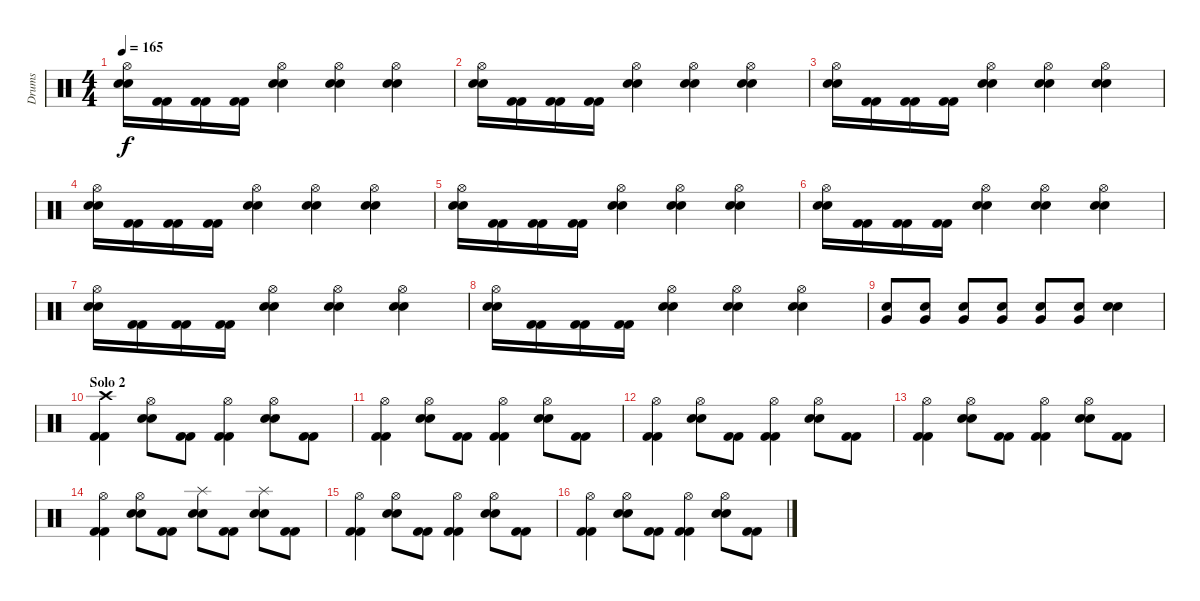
\track ("Drums" "Drums") {instrument percussion}
\staff {score}
\articulation defaults
\ts (4 4)
\tempo 165
\clef neutral
\ks c
("Hi-Hat (open)" "Snare (hit) 2" "Snare (hit) 2").16{dy f} ("Kick (hit) 2" "Kick (hit) 2").16 ("Kick (hit) 2" "Kick (hit) 2").16 ("Kick (hit) 2" "Kick (hit) 2").16 ("Hi-Hat (open)" "Snare (hit) 2" "Snare (hit) 2").4 ("Hi-Hat (open)" "Snare (hit) 2" "Snare (hit) 2").4 ("Hi-Hat (open)" "Snare (hit) 2" "Snare (hit) 2").4 |
("Hi-Hat (open)" "Snare (hit) 2" "Snare (hit) 2").16 ("Kick (hit) 2" "Kick (hit) 2").16 ("Kick (hit) 2" "Kick (hit) 2").16 ("Kick (hit) 2" "Kick (hit) 2").16 ("Hi-Hat (open)" "Snare (hit) 2" "Snare (hit) 2").4 ("Hi-Hat (open)" "Snare (hit) 2" "Snare (hit) 2").4 ("Hi-Hat (open)" "Snare (hit) 2" "Snare (hit) 2").4 |
("Hi-Hat (open)" "Snare (hit) 2" "Snare (hit) 2").16 ("Kick (hit) 2" "Kick (hit) 2").16 ("Kick (hit) 2" "Kick (hit) 2").16 ("Kick (hit) 2" "Kick (hit) 2").16 ("Hi-Hat (open)" "Snare (hit) 2" "Snare (hit) 2").4 ("Hi-Hat (open)" "Snare (hit) 2" "Snare (hit) 2").4 ("Hi-Hat (open)" "Snare (hit) 2" "Snare (hit) 2").4 |
("Hi-Hat (open)" "Snare (hit) 2" "Snare (hit) 2").16 ("Kick (hit) 2" "Kick (hit) 2").16 ("Kick (hit) 2" "Kick (hit) 2").16 ("Kick (hit) 2" "Kick (hit) 2").16 ("Hi-Hat (open)" "Snare (hit) 2" "Snare (hit) 2").4 ("Hi-Hat (open)" "Snare (hit) 2" "Snare (hit) 2").4 ("Hi-Hat (open)" "Snare (hit) 2" "Snare (hit) 2").4 |
("Hi-Hat (open)" "Snare (hit) 2" "Snare (hit) 2").16 ("Kick (hit) 2" "Kick (hit) 2").16 ("Kick (hit) 2" "Kick (hit) 2").16 ("Kick (hit) 2" "Kick (hit) 2").16 ("Hi-Hat (open)" "Snare (hit) 2" "Snare (hit) 2").4 ("Hi-Hat (open)" "Snare (hit) 2" "Snare (hit) 2").4 ("Hi-Hat (open)" "Snare (hit) 2" "Snare (hit) 2").4 |
("Hi-Hat (open)" "Snare (hit) 2" "Snare (hit) 2").16 ("Kick (hit) 2" "Kick (hit) 2").16 ("Kick (hit) 2" "Kick (hit) 2").16 ("Kick (hit) 2" "Kick (hit) 2").16 ("Hi-Hat (open)" "Snare (hit) 2" "Snare (hit) 2").4 ("Hi-Hat (open)" "Snare (hit) 2" "Snare (hit) 2").4 ("Hi-Hat (open)" "Snare (hit) 2" "Snare (hit) 2").4 |
("Hi-Hat (open)" "Snare (hit) 2" "Snare (hit) 2").16 ("Kick (hit) 2" "Kick (hit) 2").16 ("Kick (hit) 2" "Kick (hit) 2").16 ("Kick (hit) 2" "Kick (hit) 2").16 ("Hi-Hat (open)" "Snare (hit) 2" "Snare (hit) 2").4 ("Hi-Hat (open)" "Snare (hit) 2" "Snare (hit) 2").4 ("Hi-Hat (open)" "Snare (hit) 2" "Snare (hit) 2").4 |
("Hi-Hat (open)" "Snare (hit) 2" "Snare (hit) 2").16 ("Kick (hit) 2" "Kick (hit) 2").16 ("Kick (hit) 2" "Kick (hit) 2").16 ("Kick (hit) 2" "Kick (hit) 2").16 ("Hi-Hat (open)" "Snare (hit) 2" "Snare (hit) 2").4 ("Hi-Hat (open)" "Snare (hit) 2" "Snare (hit) 2").4 ("Hi-Hat (open)" "Snare (hit) 2" "Snare (hit) 2").4 |
("Very Low Tom (hit)" "Snare (hit) 2").8 ("Very Low Tom (hit)" "Snare (hit) 2").8 ("Very Low Tom (hit)" "Snare (hit) 2").8 ("Very Low Tom (hit)" "Snare (hit) 2").8 ("Very Low Tom (hit)" "Snare (hit) 2").8 ("Very Low Tom (hit)" "Snare (hit) 2").8 ("Snare (hit) 2" "Snare (hit) 2").4 |
\section ("" "Solo 2")
("Crash high (hit)" "Kick (hit) 2" "Kick (hit) 2").4 ("Hi-Hat (open)" "Snare (hit) 2" "Snare (hit) 2").8 ("Kick (hit) 2" "Kick (hit) 2").8 ("Hi-Hat (open)" "Kick (hit) 2" "Kick (hit) 2").4 ("Hi-Hat (open)" "Snare (hit) 2" "Snare (hit) 2").8 ("Kick (hit) 2" "Kick (hit) 2").8 |
("Hi-Hat (open)" "Kick (hit) 2" "Kick (hit) 2").4 ("Hi-Hat (open)" "Snare (hit) 2" "Snare (hit) 2").8 ("Kick (hit) 2" "Kick (hit) 2").8 ("Hi-Hat (open)" "Kick (hit) 2" "Kick (hit) 2").4 ("Hi-Hat (open)" "Snare (hit) 2" "Snare (hit) 2").8 ("Kick (hit) 2" "Kick (hit) 2").8 |
("Hi-Hat (open)" "Kick (hit) 2" "Kick (hit) 2").4 ("Hi-Hat (open)" "Snare (hit) 2" "Snare (hit) 2").8 ("Kick (hit) 2" "Kick (hit) 2").8 ("Hi-Hat (open)" "Kick (hit) 2" "Kick (hit) 2").4 ("Hi-Hat (open)" "Snare (hit) 2" "Snare (hit) 2").8 ("Kick (hit) 2" "Kick (hit) 2").8 |
("Hi-Hat (open)" "Kick (hit) 2" "Kick (hit) 2").4 ("Hi-Hat (open)" "Snare (hit) 2" "Snare (hit) 2").8 ("Kick (hit) 2" "Kick (hit) 2").8 ("Hi-Hat (open)" "Kick (hit) 2" "Kick (hit) 2").4 ("Hi-Hat (open)" "Snare (hit) 2" "Snare (hit) 2").8 ("Kick (hit) 2" "Kick (hit) 2").8 |
("Hi-Hat (open)" "Kick (hit) 2" "Kick (hit) 2").4 ("Hi-Hat (open)" "Snare (hit) 2" "Snare (hit) 2").8 ("Kick (hit) 2" "Kick (hit) 2").8 ("Splash (hit)" "Snare (hit) 2" "Snare (hit) 2").8 ("Kick (hit) 2" "Kick (hit) 2").8 ("Splash (hit)" "Snare (hit) 2" "Snare (hit) 2").8 ("Kick (hit) 2" "Kick (hit) 2").8 |
("Hi-Hat (open)" "Kick (hit) 2" "Kick (hit) 2").4 ("Hi-Hat (open)" "Snare (hit) 2" "Snare (hit) 2").8 ("Kick (hit) 2" "Kick (hit) 2").8 ("Hi-Hat (open)" "Kick (hit) 2" "Kick (hit) 2").4 ("Hi-Hat (open)" "Snare (hit) 2" "Snare (hit) 2").8 ("Kick (hit) 2" "Kick (hit) 2").8 |
("Hi-Hat (open)" "Kick (hit) 2" "Kick (hit) 2").4 ("Hi-Hat (open)" "Snare (hit) 2" "Snare (hit) 2").8 ("Kick (hit) 2" "Kick (hit) 2").8 ("Hi-Hat (open)" "Kick (hit) 2" "Kick (hit) 2").4 ("Hi-Hat (open)" "Snare (hit) 2" "Snare (hit) 2").8 ("Kick (hit) 2" "Kick (hit) 2").8
